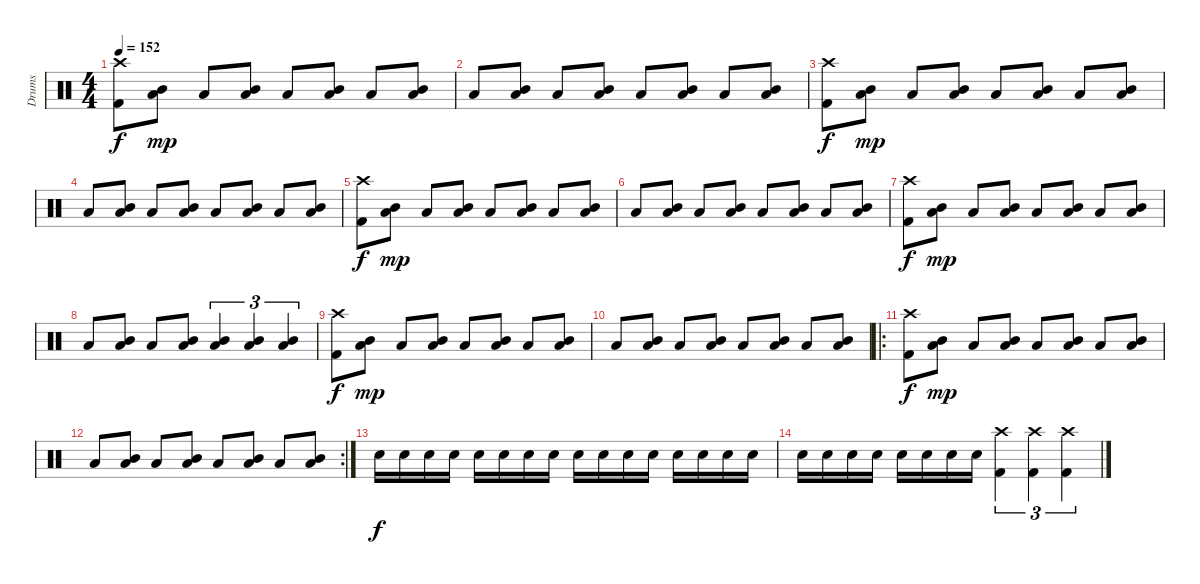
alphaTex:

\track ("Drums" "Drums") {instrument percussion}
\staff {score}
\articulation defaults
\ts (4 4)
\tempo 152
\clef neutral
\ks c
("Crash high (hit)" "Kick (hit) 2").8{dy f} ("Mid Tom (hit)" "Low Tom (hit)").8{dy mp} "Low Tom (hit)".8 ("Mid Tom (hit)" "Low Tom (hit)").8 "Low Tom (hit)".8 ("Mid Tom (hit)" "Low Tom (hit)").8 "Low Tom (hit)".8 ("Mid Tom (hit)" "Low Tom (hit)").8 |
"Low Tom (hit)".8 ("Mid Tom (hit)" "Low Tom (hit)").8 "Low Tom (hit)".8 ("Mid Tom (hit)" "Low Tom (hit)").8 "Low Tom (hit)".8 ("Mid Tom (hit)" "Low Tom (hit)").8 "Low Tom (hit)".8 ("Mid Tom (hit)" "Low Tom (hit)").8 |
("Crash high (hit)" "Kick (hit) 2").8{dy f} ("Mid Tom (hit)" "Low Tom (hit)").8{dy mp} "Low Tom (hit)".8 ("Mid Tom (hit)" "Low Tom (hit)").8 "Low Tom (hit)".8 ("Mid Tom (hit)" "Low Tom (hit)").8 "Low Tom (hit)".8 ("Mid Tom (hit)" "Low Tom (hit)").8 |
"Low Tom (hit)".8 ("Mid Tom (hit)" "Low Tom (hit)").8 "Low Tom (hit)".8 ("Mid Tom (hit)" "Low Tom (hit)").8 "Low Tom (hit)".8 ("Mid Tom (hit)" "Low Tom (hit)").8 "Low Tom (hit)".8 ("Mid Tom (hit)" "Low Tom (hit)").8 |
("Crash high (hit)" "Kick (hit) 2").8{dy f} ("Mid Tom (hit)" "Low Tom (hit)").8{dy mp} "Low Tom (hit)".8 ("Mid Tom (hit)" "Low Tom (hit)").8 "Low Tom (hit)".8 ("Mid Tom (hit)" "Low Tom (hit)").8 "Low Tom (hit)".8 ("Mid Tom (hit)" "Low Tom (hit)").8 |
"Low Tom (hit)".8 ("Mid Tom (hit)" "Low Tom (hit)").8 "Low Tom (hit)".8 ("Mid Tom (hit)" "Low Tom (hit)").8 "Low Tom (hit)".8 ("Mid Tom (hit)" "Low Tom (hit)").8 "Low Tom (hit)".8 ("Mid Tom (hit)" "Low Tom (hit)").8 |
("Crash high (hit)" "Kick (hit) 2").8{dy f} ("Mid Tom (hit)" "Low Tom (hit)").8{dy mp} "Low Tom (hit)".8 ("Mid Tom (hit)" "Low Tom (hit)").8 "Low Tom (hit)".8 ("Mid Tom (hit)" "Low Tom (hit)").8 "Low Tom (hit)".8 ("Mid Tom (hit)" "Low Tom (hit)").8 |
"Low Tom (hit)".8 ("Mid Tom (hit)" "Low Tom (hit)").8 "Low Tom (hit)".8 ("Mid Tom (hit)" "Low Tom (hit)").8 ("Mid Tom (hit)" "Low Tom (hit)").4{tu (3 2)} ("Mid Tom (hit)" "Low Tom (hit)").4{tu (3 2)} ("Mid Tom (hit)" "Low Tom (hit)").4{tu (3 2)} |
("Crash high (hit)" "Kick (hit) 2").8{dy f} ("Mid Tom (hit)" "Low Tom (hit)").8{dy mp} "Low Tom (hit)".8 ("Mid Tom (hit)" "Low Tom (hit)").8 "Low Tom (hit)".8 ("Mid Tom (hit)" "Low Tom (hit)").8 "Low Tom (hit)".8 ("Mid Tom (hit)" "Low Tom (hit)").8 |
"Low Tom (hit)".8 ("Mid Tom (hit)" "Low Tom (hit)").8 "Low Tom (hit)".8 ("Mid Tom (hit)" "Low Tom (hit)").8 "Low Tom (hit)".8 ("Mid Tom (hit)" "Low Tom (hit)").8 "Low Tom (hit)".8 ("Mid Tom (hit)" "Low Tom (hit)").8 |
\ro
("Crash high (hit)" "Kick (hit) 2").8{dy f} ("Mid Tom (hit)" "Low Tom (hit)").8{dy mp} "Low Tom (hit)".8 ("Mid Tom (hit)" "Low Tom (hit)").8 "Low Tom (hit)".8 ("Mid Tom (hit)" "Low Tom (hit)").8 "Low Tom (hit)".8 ("Mid Tom (hit)" "Low Tom (hit)").8 |
\rc 2 "Low Tom (hit)".8
("Mid Tom (hit)" "Low Tom (hit)").8 "Low Tom (hit)".8 ("Mid Tom (hit)" "Low Tom (hit)").8 "Low Tom (hit)".8 ("Mid Tom (hit)" "Low Tom (hit)").8 "Low Tom (hit)".8 ("Mid Tom (hit)" "Low Tom (hit)").8 |
"Snare (hit) 2".16{dy f} "Snare (hit) 2".16 "Snare (hit) 2".16 "Snare (hit) 2".16 "Snare (hit) 2".16 "Snare (hit) 2".16 "Snare (hit) 2".16 "Snare (hit) 2".16 "Snare (hit) 2".16 "Snare (hit) 2".16 "Snare (hit) 2".16 "Snare (hit) 2".16 "Snare (hit) 2".16 "Snare (hit) 2".16 "Snare (hit) 2".16 "Snare (hit) 2".16 |
"Snare (hit) 2".16 "Snare (hit) 2".16 "Snare (hit) 2".16 "Snare (hit) 2".16 "Snare (hit) 2".16 "Snare (hit) 2".16 "Snare (hit) 2".16 "Snare (hit) 2".16 ("Crash high (hit)" "Kick (hit) 2").4{tu (3 2)} ("Crash high (hit)" "Kick (hit) 2").4{tu (3 2)} ("Crash high (hit)" "Kick (hit) 2").4{tu (3 2)}
